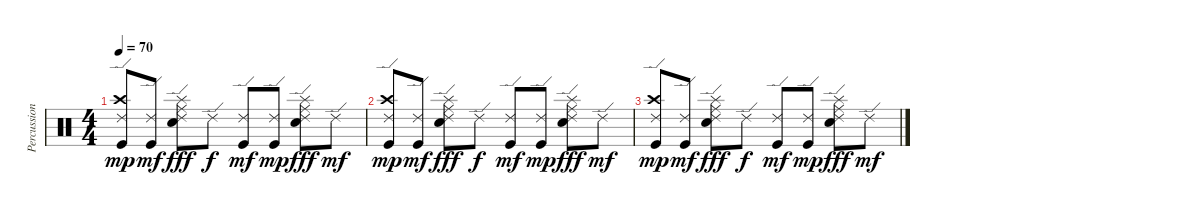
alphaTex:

\track ("Percussions" "Percussion") {instrument percussion}
\staff {score}
\articulation defaults
\ts (4 4)
\tempo 70
\clef neutral
\ks c
("Ride (edge) 2" "Crash high (hit)" "Kick (hit)").8{dy mp} ("Ride (edge) 2" "Kick (hit)").8{dy mf} ("Ride (middle)" "Ride (edge) 2" "Splash (hit)" "Electric Snare (hit)").8{dy fff} "Ride (edge) 2".8{dy f} ("Ride (edge) 2" "Kick (hit)").8{dy mf} ("Ride (edge) 2" "Kick (hit)").8{dy mp} ("Ride (middle)" "Ride (edge) 2" "Splash (hit)" "Electric Snare (hit)").8{dy fff} "Ride (edge) 2".8{dy mf} |
("Ride (edge) 2" "Crash high (hit)" "Kick (hit)").8{dy mp} ("Ride (edge) 2" "Kick (hit)").8{dy mf} ("Ride (middle)" "Ride (edge) 2" "Splash (hit)" "Electric Snare (hit)").8{dy fff} "Ride (edge) 2".8{dy f} ("Ride (edge) 2" "Kick (hit)").8{dy mf} ("Ride (edge) 2" "Kick (hit)").8{dy mp} ("Ride (middle)" "Ride (edge) 2" "Splash (hit)" "Electric Snare (hit)").8{dy fff} "Ride (edge) 2".8{dy mf} |
("Ride (edge) 2" "Crash high (hit)" "Kick (hit)").8{dy mp} ("Ride (edge) 2" "Kick (hit)").8{dy mf} ("Ride (middle)" "Ride (edge) 2" "Splash (hit)" "Electric Snare (hit)").8{dy fff} "Ride (edge) 2".8{dy f} ("Ride (edge) 2" "Kick (hit)").8{dy mf} ("Ride (edge) 2" "Kick (hit)").8{dy mp} ("Ride (middle)" "Ride (edge) 2" "Splash (hit)" "Electric Snare (hit)").8{dy fff} "Ride (edge) 2".8{dy mf}
